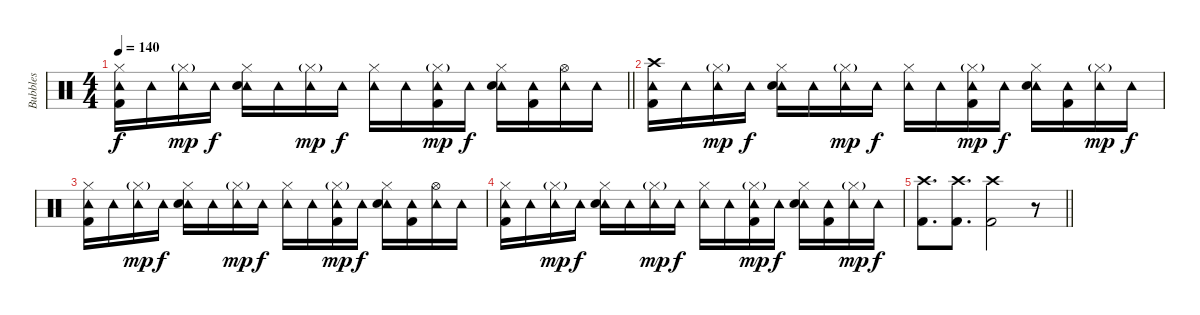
\track ("Bubbles" "Bubbles") {instrument percussion}
\staff {score}
\articulation defaults
\ts (4 4)
\tempo 140
\clef neutral
\barLineRight lightlight
\ks c
("Tambourine (hit)" "Hi-Hat (closed)" "Kick (hit) 2").16{dy f} "Tambourine (hit)".16 ("Tambourine (hit)" "Hi-Hat (closed)"{g}).16{dy mp} "Tambourine (hit)".16{dy f} ("Tambourine (hit)" "Hi-Hat (closed)" "Snare (hit) 2").16 "Tambourine (hit)".16 ("Tambourine (hit)" "Hi-Hat (closed)"{g}).16{dy mp} "Tambourine (hit)".16{dy f} ("Tambourine (hit)" "Hi-Hat (closed)").16 "Tambourine (hit)".16 ("Tambourine (hit)" "Hi-Hat (closed)"{g} "Kick (hit) 2").16{dy mp} "Tambourine (hit)".16{dy f} ("Tambourine (hit)" "Hi-Hat (closed)" "Snare (hit) 2").16 ("Tambourine (hit)" "Kick (hit) 2").16 ("Tambourine (hit)" "Hi-Hat (open)").16 "Tambourine (hit)".16 |
("Crash high (hit)" "Tambourine (hit)" "Kick (hit) 2").16 "Tambourine (hit)".16 ("Tambourine (hit)" "Hi-Hat (closed)"{g}).16{dy mp} "Tambourine (hit)".16{dy f} ("Tambourine (hit)" "Hi-Hat (closed)" "Snare (hit) 2").16 "Tambourine (hit)".16 ("Tambourine (hit)" "Hi-Hat (closed)"{g}).16{dy mp} "Tambourine (hit)".16{dy f} ("Tambourine (hit)" "Hi-Hat (closed)").16 "Tambourine (hit)".16 ("Tambourine (hit)" "Hi-Hat (closed)"{g} "Kick (hit) 2").16{dy mp} "Tambourine (hit)".16{dy f} ("Tambourine (hit)" "Hi-Hat (closed)" "Snare (hit) 2").16 ("Tambourine (hit)" "Kick (hit) 2").16 ("Tambourine (hit)" "Hi-Hat (closed)"{g}).16{dy mp} "Tambourine (hit)".16{dy f} |
("Tambourine (hit)" "Hi-Hat (closed)" "Kick (hit) 2").16 "Tambourine (hit)".16 ("Tambourine (hit)" "Hi-Hat (closed)"{g}).16{dy mp} "Tambourine (hit)".16{dy f} ("Tambourine (hit)" "Hi-Hat (closed)" "Snare (hit) 2").16 "Tambourine (hit)".16 ("Tambourine (hit)" "Hi-Hat (closed)"{g}).16{dy mp} "Tambourine (hit)".16{dy f} ("Tambourine (hit)" "Hi-Hat (closed)").16 "Tambourine (hit)".16 ("Tambourine (hit)" "Hi-Hat (closed)"{g} "Kick (hit) 2").16{dy mp} "Tambourine (hit)".16{dy f} ("Tambourine (hit)" "Hi-Hat (closed)" "Snare (hit) 2").16 ("Tambourine (hit)" "Kick (hit) 2").16 ("Tambourine (hit)" "Hi-Hat (open)").16 "Tambourine (hit)".16 |
("Tambourine (hit)" "Hi-Hat (closed)" "Kick (hit) 2").16 "Tambourine (hit)".16 ("Tambourine (hit)" "Hi-Hat (closed)"{g}).16{dy mp} "Tambourine (hit)".16{dy f} ("Tambourine (hit)" "Hi-Hat (closed)" "Snare (hit) 2").16 "Tambourine (hit)".16 ("Tambourine (hit)" "Hi-Hat (closed)"{g}).16{dy mp} "Tambourine (hit)".16{dy f} ("Tambourine (hit)" "Hi-Hat (closed)").16 "Tambourine (hit)".16 ("Tambourine (hit)" "Hi-Hat (closed)"{g} "Kick (hit) 2").16{dy mp} "Tambourine (hit)".16{dy f} ("Tambourine (hit)" "Hi-Hat (closed)" "Snare (hit) 2").16 ("Tambourine (hit)" "Kick (hit) 2").16 ("Tambourine (hit)" "Hi-Hat (closed)"{g}).16{dy mp} "Tambourine (hit)".16{dy f} |
\barLineRight lightlight
("Crash high (hit)" "Kick (hit) 2").8{d} ("Crash high (hit)" "Kick (hit) 2").8{d} ("Crash high (hit)" "Kick (hit) 2").2 r.8
